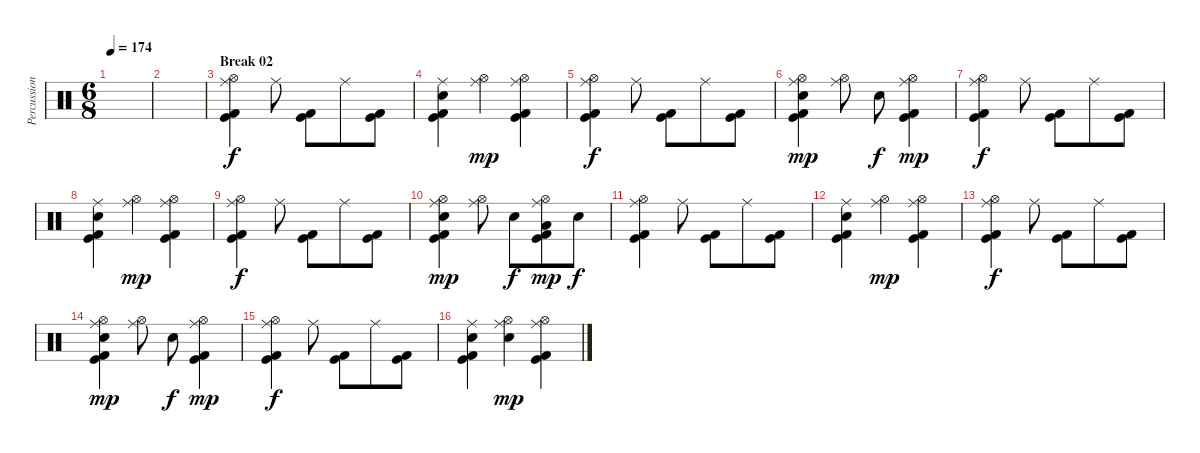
\track ("Percussion" "Percussion") {instrument percussion}
\staff {score}
\articulation defaults
\ts (6 8)
\tempo 174
\clef neutral
\ks c
|
|
\section ("" "Break 02")
("Ride (middle)" "Hi-Hat (open)" "Kick (hit) 2" "Kick (hit)").4 "Ride (middle)".8 ("Kick (hit) 2" "Kick (hit)").8 "Ride (middle)".8 ("Kick (hit) 2" "Kick (hit)").8 |
("Ride (middle)" "Electric Snare (hit)" "Kick (hit) 2" "Kick (hit)").4 ("Ride (middle)" "Hi-Hat (open)").4{dy mp} ("Ride (middle)" "Hi-Hat (open)" "Kick (hit) 2" "Kick (hit)").4 |
("Ride (middle)" "Hi-Hat (open)" "Kick (hit) 2" "Kick (hit)").4{dy f} "Ride (middle)".8 ("Kick (hit) 2" "Kick (hit)").8 "Ride (middle)".8 ("Kick (hit) 2" "Kick (hit)").8 |
("Ride (middle)" "Hi-Hat (open)" "Electric Snare (hit)" "Kick (hit) 2" "Kick (hit)").4{dy mp} ("Ride (middle)" "Hi-Hat (open)").8 "Electric Snare (hit)".8{dy f} ("Ride (middle)" "Hi-Hat (open)" "Kick (hit) 2" "Kick (hit)").4{dy mp} |
("Ride (middle)" "Hi-Hat (open)" "Kick (hit) 2" "Kick (hit)").4{dy f} "Ride (middle)".8 ("Kick (hit) 2" "Kick (hit)").8 "Ride (middle)".8 ("Kick (hit) 2" "Kick (hit)").8 |
("Ride (middle)" "Electric Snare (hit)" "Kick (hit) 2" "Kick (hit)").4 ("Ride (middle)" "Hi-Hat (open)").4{dy mp} ("Ride (middle)" "Hi-Hat (open)" "Kick (hit) 2" "Kick (hit)").4 |
("Ride (middle)" "Hi-Hat (open)" "Kick (hit) 2" "Kick (hit)").4{dy f} "Ride (middle)".8 ("Kick (hit) 2" "Kick (hit)").8 "Ride (middle)".8 ("Kick (hit) 2" "Kick (hit)").8 |
("Ride (middle)" "Hi-Hat (open)" "Electric Snare (hit)" "Kick (hit) 2" "Kick (hit)").4{dy mp} ("Ride (middle)" "Hi-Hat (open)").8 "Electric Snare (hit)".8{dy f} ("Ride (middle)" "Hi-Hat (open)" "Low Tom (hit)" "Kick (hit) 2" "Kick (hit)").8{dy mp} "Electric Snare (hit)".8{dy f} |
("Ride (middle)" "Hi-Hat (open)" "Kick (hit) 2" "Kick (hit)").4 "Ride (middle)".8 ("Kick (hit) 2" "Kick (hit)").8 "Ride (middle)".8 ("Kick (hit) 2" "Kick (hit)").8 |
("Ride (middle)" "Electric Snare (hit)" "Kick (hit) 2" "Kick (hit)").4 ("Ride (middle)" "Hi-Hat (open)").4{dy mp} ("Ride (middle)" "Hi-Hat (open)" "Kick (hit) 2" "Kick (hit)").4 |
("Ride (middle)" "Hi-Hat (open)" "Kick (hit) 2" "Kick (hit)").4{dy f} "Ride (middle)".8 ("Kick (hit) 2" "Kick (hit)").8 "Ride (middle)".8 ("Kick (hit) 2" "Kick (hit)").8 |
("Ride (middle)" "Hi-Hat (open)" "Electric Snare (hit)" "Kick (hit) 2" "Kick (hit)").4{dy mp} ("Ride (middle)" "Hi-Hat (open)").8 "Electric Snare (hit)".8{dy f} ("Ride (middle)" "Hi-Hat (open)" "Kick (hit) 2" "Kick (hit)").4{dy mp} |
("Ride (middle)" "Hi-Hat (open)" "Kick (hit) 2" "Kick (hit)").4{dy f} "Ride (middle)".8 ("Kick (hit) 2" "Kick (hit)").8 "Ride (middle)".8 ("Kick (hit) 2" "Kick (hit)").8 |
("Ride (middle)" "Electric Snare (hit)" "Kick (hit) 2" "Kick (hit)").4 ("Ride (middle)" "Hi-Hat (open)" "Electric Snare (hit)").4{dy mp} ("Ride (middle)" "Hi-Hat (open)" "Kick (hit) 2" "Kick (hit)").4
